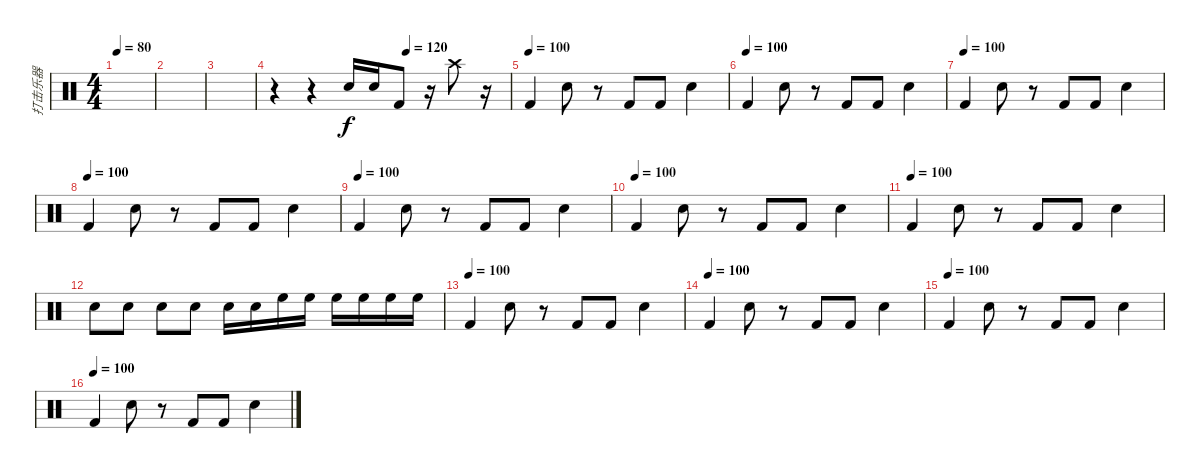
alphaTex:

\track ("打击乐器" "打击乐器") {instrument percussion}
\staff {score}
\articulation defaults
\ts (4 4)
\tempo 80
\clef neutral
\ks c
|
|
|
\tempo (120 0.5625)
r.4 r.4 "Snare (hit) 2".16 "Snare (hit) 2".16 "Kick (hit) 2".8 r.16 "Crash high (hit)".8 r.16 |
\tempo (100)
"Kick (hit) 2".4 "Snare (hit) 2".8 r.8 "Kick (hit) 2".8 "Kick (hit) 2".8 "Snare (hit) 2".4 |
\tempo (100)
"Kick (hit) 2".4 "Snare (hit) 2".8 r.8 "Kick (hit) 2".8 "Kick (hit) 2".8 "Snare (hit) 2".4 |
\tempo (100)
"Kick (hit) 2".4 "Snare (hit) 2".8 r.8 "Kick (hit) 2".8 "Kick (hit) 2".8 "Snare (hit) 2".4 |
\tempo (100)
"Kick (hit) 2".4 "Snare (hit) 2".8 r.8 "Kick (hit) 2".8 "Kick (hit) 2".8 "Snare (hit) 2".4 |
\tempo (100)
"Kick (hit) 2".4 "Snare (hit) 2".8 r.8 "Kick (hit) 2".8 "Kick (hit) 2".8 "Snare (hit) 2".4 |
\tempo (100)
"Kick (hit) 2".4 "Snare (hit) 2".8 r.8 "Kick (hit) 2".8 "Kick (hit) 2".8 "Snare (hit) 2".4 |
\tempo (100)
"Kick (hit) 2".4 "Snare (hit) 2".8 r.8 "Kick (hit) 2".8 "Kick (hit) 2".8 "Snare (hit) 2".4 |
"Snare (hit) 2".8 "Snare (hit) 2".8 "Snare (hit) 2".8 "Snare (hit) 2".8 "Snare (hit) 2".16 "Snare (hit) 2".16 "High Floor Tom (hit)".16 "High Floor Tom (hit)".16 "High Floor Tom (hit)".16 "High Floor Tom (hit)".16 "High Floor Tom (hit)".16 "High Floor Tom (hit)".16 |
\tempo (100)
"Kick (hit) 2".4 "Snare (hit) 2".8 r.8 "Kick (hit) 2".8 "Kick (hit) 2".8 "Snare (hit) 2".4 |
\tempo (100)
"Kick (hit) 2".4 "Snare (hit) 2".8 r.8 "Kick (hit) 2".8 "Kick (hit) 2".8 "Snare (hit) 2".4 |
\tempo (100)
"Kick (hit) 2".4 "Snare (hit) 2".8 r.8 "Kick (hit) 2".8 "Kick (hit) 2".8 "Snare (hit) 2".4 |
\tempo (100)
"Kick (hit) 2".4 "Snare (hit) 2".8 r.8 "Kick (hit) 2".8 "Kick (hit) 2".8 "Snare (hit) 2".4
